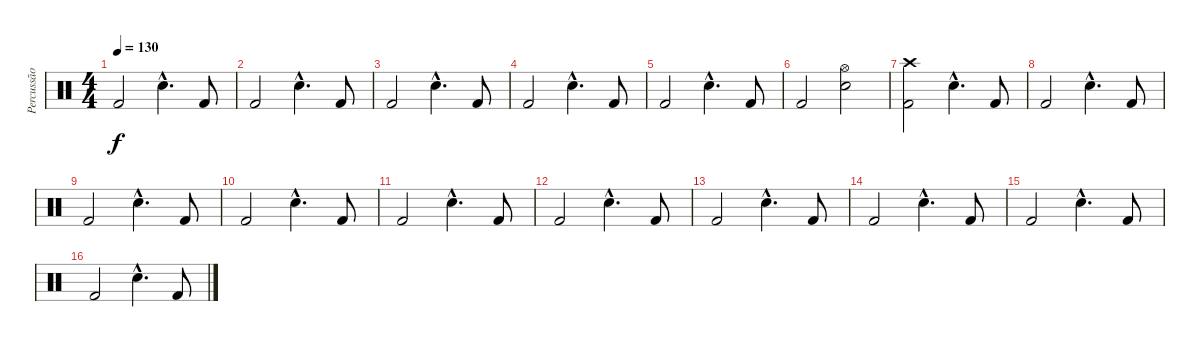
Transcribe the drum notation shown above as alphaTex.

\track ("Percussão" "Percussão") {instrument percussion}
\staff {score}
\articulation defaults
\ts (4 4)
\tempo 130
\clef neutral
\ks c "Kick (hit) 2".2{dy f} "Snare (hit) 2"{hac}.4{d} "Kick (hit) 2".8
|
"Kick (hit) 2".2 "Snare (hit) 2"{hac}.4{d} "Kick (hit) 2".8 |
"Kick (hit) 2".2 "Snare (hit) 2"{hac}.4{d} "Kick (hit) 2".8 |
"Kick (hit) 2".2 "Snare (hit) 2"{hac}.4{d} "Kick (hit) 2".8 |
"Kick (hit) 2".2 "Snare (hit) 2"{hac}.4{d} "Kick (hit) 2".8 |
"Kick (hit) 2".2 ("Hi-Hat (open)" "Snare (hit) 2").2 |
("Crash high (hit)" "Kick (hit) 2").2 "Snare (hit) 2"{hac}.4{d} "Kick (hit) 2".8 |
"Kick (hit) 2".2 "Snare (hit) 2"{hac}.4{d} "Kick (hit) 2".8 |
"Kick (hit) 2".2 "Snare (hit) 2"{hac}.4{d} "Kick (hit) 2".8 |
"Kick (hit) 2".2 "Snare (hit) 2"{hac}.4{d} "Kick (hit) 2".8 |
"Kick (hit) 2".2 "Snare (hit) 2"{hac}.4{d} "Kick (hit) 2".8 |
"Kick (hit) 2".2 "Snare (hit) 2"{hac}.4{d} "Kick (hit) 2".8 |
"Kick (hit) 2".2 "Snare (hit) 2"{hac}.4{d} "Kick (hit) 2".8 |
"Kick (hit) 2".2 "Snare (hit) 2"{hac}.4{d} "Kick (hit) 2".8 |
"Kick (hit) 2".2 "Snare (hit) 2"{hac}.4{d} "Kick (hit) 2".8 |
"Kick (hit) 2".2 "Snare (hit) 2"{hac}.4{d} "Kick (hit) 2".8
